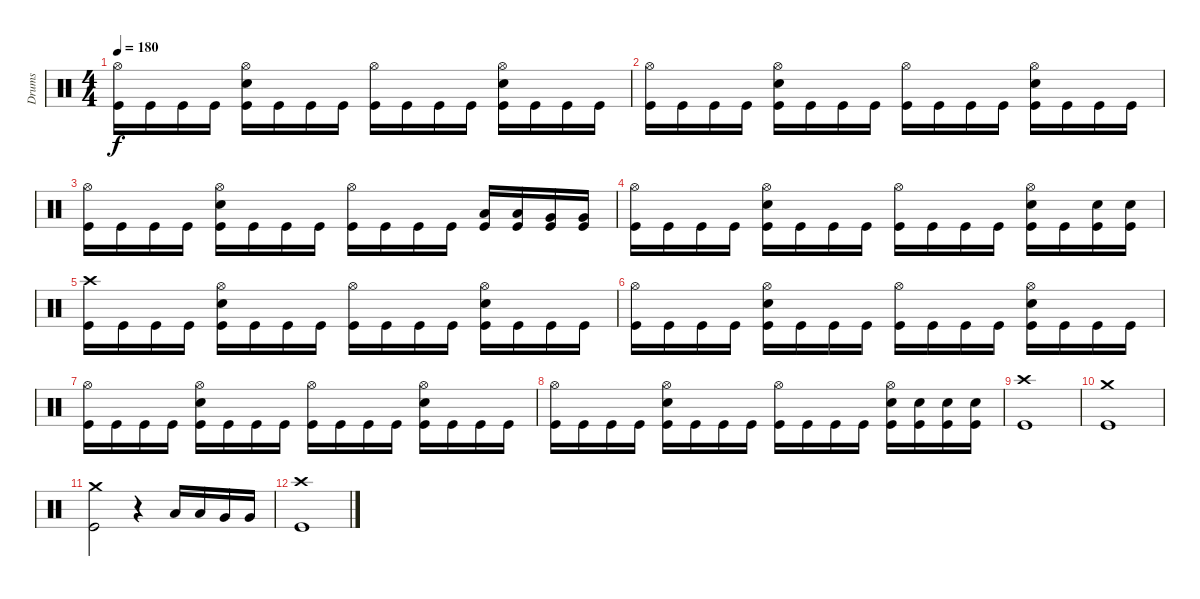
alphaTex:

\track ("Drums" "Drums") {instrument percussion}
\staff {score}
\articulation defaults
\ts (4 4)
\tempo 180
\clef neutral
\ks c
("Hi-Hat (open)" "Kick (hit)").16{dy f} "Kick (hit)".16 "Kick (hit)".16 "Kick (hit)".16 ("Hi-Hat (open)" "Electric Snare (hit)" "Kick (hit)").16 "Kick (hit)".16 "Kick (hit)".16 "Kick (hit)".16 ("Hi-Hat (open)" "Kick (hit)").16 "Kick (hit)".16 "Kick (hit)".16 "Kick (hit)".16 ("Hi-Hat (open)" "Electric Snare (hit)" "Kick (hit)").16 "Kick (hit)".16 "Kick (hit)".16 "Kick (hit)".16 |
("Hi-Hat (open)" "Kick (hit)").16 "Kick (hit)".16 "Kick (hit)".16 "Kick (hit)".16 ("Hi-Hat (open)" "Electric Snare (hit)" "Kick (hit)").16 "Kick (hit)".16 "Kick (hit)".16 "Kick (hit)".16 ("Hi-Hat (open)" "Kick (hit)").16 "Kick (hit)".16 "Kick (hit)".16 "Kick (hit)".16 ("Hi-Hat (open)" "Electric Snare (hit)" "Kick (hit)").16 "Kick (hit)".16 "Kick (hit)".16 "Kick (hit)".16 |
("Hi-Hat (open)" "Kick (hit)").16 "Kick (hit)".16 "Kick (hit)".16 "Kick (hit)".16 ("Hi-Hat (open)" "Electric Snare (hit)" "Kick (hit)").16 "Kick (hit)".16 "Kick (hit)".16 "Kick (hit)".16 ("Hi-Hat (open)" "Kick (hit)").16 "Kick (hit)".16 "Kick (hit)".16 "Kick (hit)".16 ("Low Tom (hit)" "Kick (hit)").16 ("Low Tom (hit)" "Kick (hit)").16 ("Very Low Tom (hit)" "Kick (hit)").16 ("Very Low Tom (hit)" "Kick (hit)").16 |
("Hi-Hat (open)" "Kick (hit)").16 "Kick (hit)".16 "Kick (hit)".16 "Kick (hit)".16 ("Hi-Hat (open)" "Electric Snare (hit)" "Kick (hit)").16 "Kick (hit)".16 "Kick (hit)".16 "Kick (hit)".16 ("Hi-Hat (open)" "Kick (hit)").16 "Kick (hit)".16 "Kick (hit)".16 "Kick (hit)".16 ("Hi-Hat (open)" "Electric Snare (hit)" "Kick (hit)").16 "Kick (hit)".16 ("Electric Snare (hit)" "Kick (hit)").16 ("Electric Snare (hit)" "Kick (hit)").16 |
("Crash high (hit)" "Kick (hit)").16 "Kick (hit)".16 "Kick (hit)".16 "Kick (hit)".16 ("Hi-Hat (open)" "Electric Snare (hit)" "Kick (hit)").16 "Kick (hit)".16 "Kick (hit)".16 "Kick (hit)".16 ("Hi-Hat (open)" "Kick (hit)").16 "Kick (hit)".16 "Kick (hit)".16 "Kick (hit)".16 ("Hi-Hat (open)" "Electric Snare (hit)" "Kick (hit)").16 "Kick (hit)".16 "Kick (hit)".16 "Kick (hit)".16 |
("Hi-Hat (open)" "Kick (hit)").16 "Kick (hit)".16 "Kick (hit)".16 "Kick (hit)".16 ("Hi-Hat (open)" "Electric Snare (hit)" "Kick (hit)").16 "Kick (hit)".16 "Kick (hit)".16 "Kick (hit)".16 ("Hi-Hat (open)" "Kick (hit)").16 "Kick (hit)".16 "Kick (hit)".16 "Kick (hit)".16 ("Hi-Hat (open)" "Electric Snare (hit)" "Kick (hit)").16 "Kick (hit)".16 "Kick (hit)".16 "Kick (hit)".16 |
("Hi-Hat (open)" "Kick (hit)").16 "Kick (hit)".16 "Kick (hit)".16 "Kick (hit)".16 ("Hi-Hat (open)" "Electric Snare (hit)" "Kick (hit)").16 "Kick (hit)".16 "Kick (hit)".16 "Kick (hit)".16 ("Hi-Hat (open)" "Kick (hit)").16 "Kick (hit)".16 "Kick (hit)".16 "Kick (hit)".16 ("Hi-Hat (open)" "Electric Snare (hit)" "Kick (hit)").16 "Kick (hit)".16 "Kick (hit)".16 "Kick (hit)".16 |
("Hi-Hat (open)" "Kick (hit)").16 "Kick (hit)".16 "Kick (hit)".16 "Kick (hit)".16 ("Hi-Hat (open)" "Electric Snare (hit)" "Kick (hit)").16 "Kick (hit)".16 "Kick (hit)".16 "Kick (hit)".16 ("Hi-Hat (open)" "Kick (hit)").16 "Kick (hit)".16 "Kick (hit)".16 "Kick (hit)".16 ("Hi-Hat (open)" "Electric Snare (hit)" "Kick (hit)").16 ("Electric Snare (hit)" "Kick (hit)").16 ("Electric Snare (hit)" "Kick (hit)").16 ("Electric Snare (hit)" "Kick (hit)").16 |
("Crash high (hit)" "Kick (hit)").1 |
("Crash medium (hit)" "Kick (hit)").1 |
("Crash medium (hit)" "Kick (hit)").2 r.4 "Low Tom (hit)".16 "Low Tom (hit)".16 "Very Low Tom (hit)".16 "Very Low Tom (hit)".16 |
("Crash high (hit)" "Kick (hit)").1
